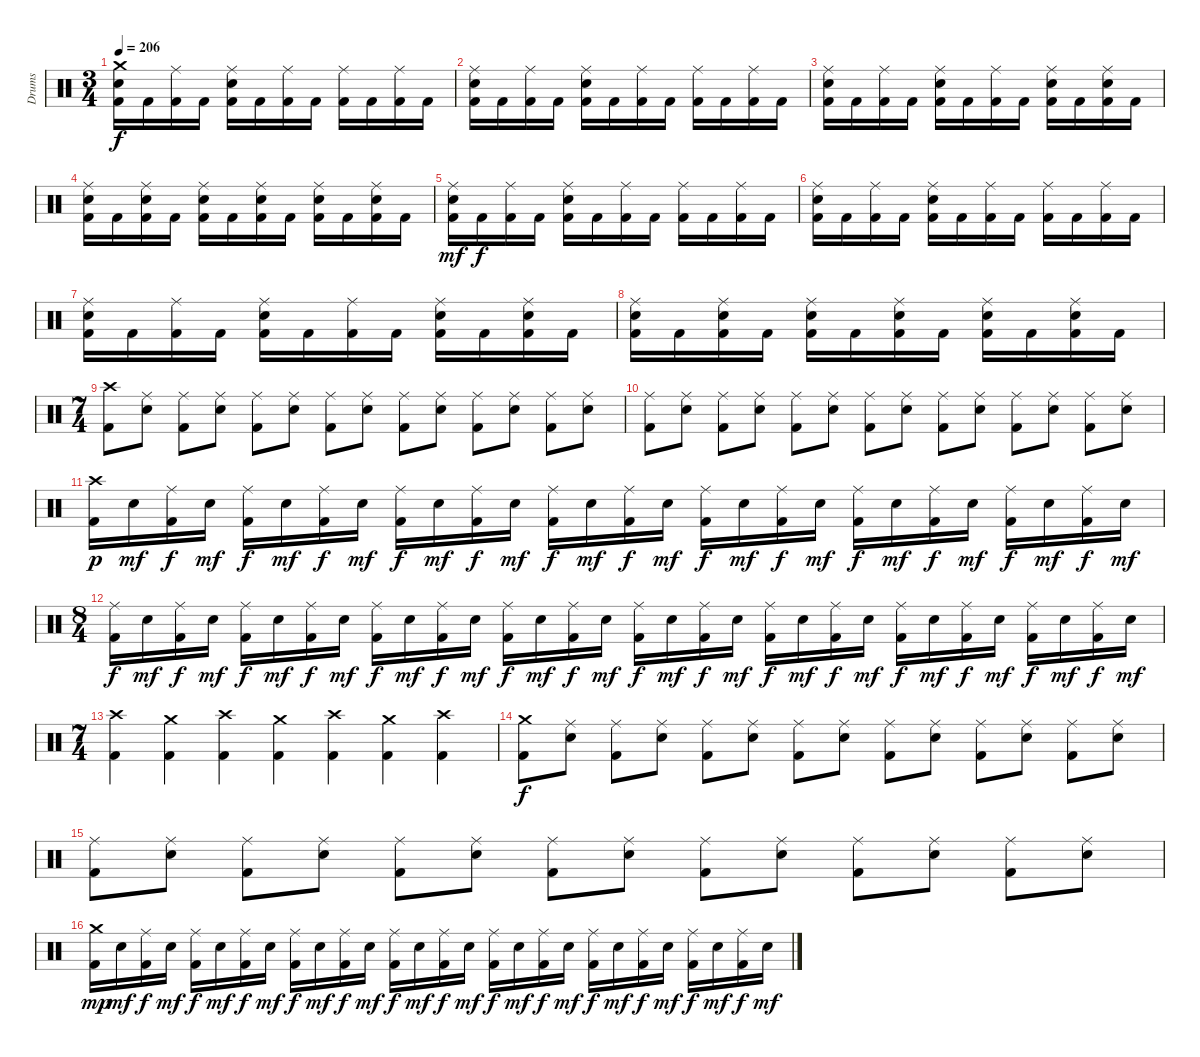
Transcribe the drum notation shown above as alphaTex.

\track ("Drums" "Drums") {instrument percussion}
\staff {score}
\articulation defaults
\ts (3 4)
\tempo 206
\clef neutral
\ks c
("Crash medium (hit)" "Electric Snare (hit)" "Kick (hit) 2").16{dy f} "Kick (hit) 2".16 ("Ride (middle)" "Kick (hit) 2").16 "Kick (hit) 2".16 ("Ride (middle)" "Electric Snare (hit)" "Kick (hit) 2").16 "Kick (hit) 2".16 ("Ride (middle)" "Kick (hit) 2").16 "Kick (hit) 2".16 ("Ride (middle)" "Kick (hit) 2").16 "Kick (hit) 2".16 ("Ride (middle)" "Kick (hit) 2").16 "Kick (hit) 2".16 |
("Ride (middle)" "Electric Snare (hit)" "Kick (hit) 2").16 "Kick (hit) 2".16 ("Ride (middle)" "Kick (hit) 2").16 "Kick (hit) 2".16 ("Ride (middle)" "Electric Snare (hit)" "Kick (hit) 2").16 "Kick (hit) 2".16 ("Ride (middle)" "Kick (hit) 2").16 "Kick (hit) 2".16 ("Ride (middle)" "Kick (hit) 2").16 "Kick (hit) 2".16 ("Ride (middle)" "Kick (hit) 2").16 "Kick (hit) 2".16 |
("Ride (middle)" "Electric Snare (hit)" "Kick (hit) 2").16 "Kick (hit) 2".16 ("Ride (middle)" "Kick (hit) 2").16 "Kick (hit) 2".16 ("Ride (middle)" "Electric Snare (hit)" "Kick (hit) 2").16 "Kick (hit) 2".16 ("Ride (middle)" "Kick (hit) 2").16 "Kick (hit) 2".16 ("Ride (middle)" "Electric Snare (hit)" "Kick (hit) 2").16 "Kick (hit) 2".16 ("Ride (middle)" "Electric Snare (hit)" "Kick (hit) 2").16 "Kick (hit) 2".16 |
("Ride (middle)" "Electric Snare (hit)" "Kick (hit) 2").16 "Kick (hit) 2".16 ("Ride (middle)" "Electric Snare (hit)" "Kick (hit) 2").16 "Kick (hit) 2".16 ("Ride (middle)" "Electric Snare (hit)" "Kick (hit) 2").16 "Kick (hit) 2".16 ("Ride (middle)" "Electric Snare (hit)" "Kick (hit) 2").16 "Kick (hit) 2".16 ("Ride (middle)" "Electric Snare (hit)" "Kick (hit) 2").16 "Kick (hit) 2".16 ("Ride (middle)" "Electric Snare (hit)" "Kick (hit) 2").16 "Kick (hit) 2".16 |
("Ride (middle)" "Electric Snare (hit)" "Kick (hit) 2").16{dy mf} "Kick (hit) 2".16{dy f} ("Ride (middle)" "Kick (hit) 2").16 "Kick (hit) 2".16 ("Ride (middle)" "Electric Snare (hit)" "Kick (hit) 2").16 "Kick (hit) 2".16 ("Ride (middle)" "Kick (hit) 2").16 "Kick (hit) 2".16 ("Ride (middle)" "Kick (hit) 2").16 "Kick (hit) 2".16 ("Ride (middle)" "Kick (hit) 2").16 "Kick (hit) 2".16 |
("Ride (middle)" "Electric Snare (hit)" "Kick (hit) 2").16 "Kick (hit) 2".16 ("Ride (middle)" "Kick (hit) 2").16 "Kick (hit) 2".16 ("Ride (middle)" "Electric Snare (hit)" "Kick (hit) 2").16 "Kick (hit) 2".16 ("Ride (middle)" "Kick (hit) 2").16 "Kick (hit) 2".16 ("Ride (middle)" "Kick (hit) 2").16 "Kick (hit) 2".16 ("Ride (middle)" "Kick (hit) 2").16 "Kick (hit) 2".16 |
("Ride (middle)" "Electric Snare (hit)" "Kick (hit) 2").16 "Kick (hit) 2".16 ("Ride (middle)" "Kick (hit) 2").16 "Kick (hit) 2".16 ("Ride (middle)" "Electric Snare (hit)" "Kick (hit) 2").16 "Kick (hit) 2".16 ("Ride (middle)" "Kick (hit) 2").16 "Kick (hit) 2".16 ("Ride (middle)" "Electric Snare (hit)" "Kick (hit) 2").16 "Kick (hit) 2".16 ("Ride (middle)" "Electric Snare (hit)" "Kick (hit) 2").16 "Kick (hit) 2".16 |
("Ride (middle)" "Electric Snare (hit)" "Kick (hit) 2").16 "Kick (hit) 2".16 ("Ride (middle)" "Electric Snare (hit)" "Kick (hit) 2").16 "Kick (hit) 2".16 ("Ride (middle)" "Electric Snare (hit)" "Kick (hit) 2").16 "Kick (hit) 2".16 ("Ride (middle)" "Electric Snare (hit)" "Kick (hit) 2").16 "Kick (hit) 2".16 ("Ride (middle)" "Electric Snare (hit)" "Kick (hit) 2").16 "Kick (hit) 2".16 ("Ride (middle)" "Electric Snare (hit)" "Kick (hit) 2").16 "Kick (hit) 2".16 |
\ts (7 4)
("Crash high (hit)" "Kick (hit) 2").8 ("Ride (middle)" "Electric Snare (hit)").8 ("Ride (middle)" "Kick (hit) 2").8 ("Ride (middle)" "Electric Snare (hit)").8 ("Ride (middle)" "Kick (hit) 2").8 ("Ride (middle)" "Electric Snare (hit)").8 ("Ride (middle)" "Kick (hit) 2").8 ("Ride (middle)" "Electric Snare (hit)").8 ("Ride (middle)" "Kick (hit) 2").8 ("Ride (middle)" "Electric Snare (hit)").8 ("Ride (middle)" "Kick (hit) 2").8 ("Ride (middle)" "Electric Snare (hit)").8 ("Ride (middle)" "Kick (hit) 2").8 ("Ride (middle)" "Electric Snare (hit)").8 |
("Ride (middle)" "Kick (hit) 2").8 ("Ride (middle)" "Electric Snare (hit)").8 ("Ride (middle)" "Kick (hit) 2").8 ("Ride (middle)" "Electric Snare (hit)").8 ("Ride (middle)" "Kick (hit) 2").8 ("Ride (middle)" "Electric Snare (hit)").8 ("Ride (middle)" "Kick (hit) 2").8 ("Ride (middle)" "Electric Snare (hit)").8 ("Ride (middle)" "Kick (hit) 2").8 ("Ride (middle)" "Electric Snare (hit)").8 ("Ride (middle)" "Kick (hit) 2").8 ("Ride (middle)" "Electric Snare (hit)").8 ("Ride (middle)" "Kick (hit) 2").8 ("Ride (middle)" "Electric Snare (hit)").8 |
("Crash high (hit)" "Kick (hit) 2").16{dy p} "Electric Snare (hit)".16{dy mf} ("Ride (middle)" "Kick (hit) 2").16{dy f} "Electric Snare (hit)".16{dy mf} ("Ride (middle)" "Kick (hit) 2").16{dy f} "Electric Snare (hit)".16{dy mf} ("Ride (middle)" "Kick (hit) 2").16{dy f} "Electric Snare (hit)".16{dy mf} ("Ride (middle)" "Kick (hit) 2").16{dy f} "Electric Snare (hit)".16{dy mf} ("Ride (middle)" "Kick (hit) 2").16{dy f} "Electric Snare (hit)".16{dy mf} ("Ride (middle)" "Kick (hit) 2").16{dy f} "Electric Snare (hit)".16{dy mf} ("Ride (middle)" "Kick (hit) 2").16{dy f} "Electric Snare (hit)".16{dy mf} ("Ride (middle)" "Kick (hit) 2").16{dy f} "Electric Snare (hit)".16{dy mf} ("Ride (middle)" "Kick (hit) 2").16{dy f} "Electric Snare (hit)".16{dy mf} ("Ride (middle)" "Kick (hit) 2").16{dy f} "Electric Snare (hit)".16{dy mf} ("Ride (middle)" "Kick (hit) 2").16{dy f} "Electric Snare (hit)".16{dy mf} ("Ride (middle)" "Kick (hit) 2").16{dy f} "Electric Snare (hit)".16{dy mf} ("Ride (middle)" "Kick (hit) 2").16{dy f} "Electric Snare (hit)".16{dy mf} |
\ts (8 4)
("Ride (middle)" "Kick (hit) 2").16{dy f} "Electric Snare (hit)".16{dy mf} ("Ride (middle)" "Kick (hit) 2").16{dy f} "Electric Snare (hit)".16{dy mf} ("Ride (middle)" "Kick (hit) 2").16{dy f} "Electric Snare (hit)".16{dy mf} ("Ride (middle)" "Kick (hit) 2").16{dy f} "Electric Snare (hit)".16{dy mf} ("Ride (middle)" "Kick (hit) 2").16{dy f} "Electric Snare (hit)".16{dy mf} ("Ride (middle)" "Kick (hit) 2").16{dy f} "Electric Snare (hit)".16{dy mf} ("Ride (middle)" "Kick (hit) 2").16{dy f} "Electric Snare (hit)".16{dy mf} ("Ride (middle)" "Kick (hit) 2").16{dy f} "Electric Snare (hit)".16{dy mf} ("Ride (middle)" "Kick (hit) 2").16{dy f} "Electric Snare (hit)".16{dy mf} ("Ride (middle)" "Kick (hit) 2").16{dy f} "Electric Snare (hit)".16{dy mf} ("Ride (middle)" "Kick (hit) 2").16{dy f} "Electric Snare (hit)".16{dy mf} ("Ride (middle)" "Kick (hit) 2").16{dy f} "Electric Snare (hit)".16{dy mf} ("Ride (middle)" "Kick (hit) 2").16{dy f} "Electric Snare (hit)".16{dy mf} ("Ride (middle)" "Kick (hit) 2").16{dy f} "Electric Snare (hit)".16{dy mf} ("Ride (middle)" "Kick (hit) 2").16{dy f} "Electric Snare (hit)".16{dy mf} ("Ride (middle)" "Kick (hit) 2").16{dy f} "Electric Snare (hit)".16{dy mf} |
\ts (7 4)
("Crash high (hit)" "Kick (hit) 2").4 ("Crash medium (hit)" "Kick (hit) 2").4 ("Crash high (hit)" "Kick (hit) 2").4 ("Crash medium (hit)" "Kick (hit) 2").4 ("Crash high (hit)" "Kick (hit) 2").4 ("Crash medium (hit)" "Kick (hit) 2").4 ("Crash high (hit)" "Kick (hit) 2").4 |
("Crash medium (hit)" "Kick (hit) 2").8{dy f} ("Ride (middle)" "Electric Snare (hit)").8 ("Ride (middle)" "Kick (hit) 2").8 ("Ride (middle)" "Electric Snare (hit)").8 ("Ride (middle)" "Kick (hit) 2").8 ("Ride (middle)" "Electric Snare (hit)").8 ("Ride (middle)" "Kick (hit) 2").8 ("Ride (middle)" "Electric Snare (hit)").8 ("Ride (middle)" "Kick (hit) 2").8 ("Ride (middle)" "Electric Snare (hit)").8 ("Ride (middle)" "Kick (hit) 2").8 ("Ride (middle)" "Electric Snare (hit)").8 ("Ride (middle)" "Kick (hit) 2").8 ("Ride (middle)" "Electric Snare (hit)").8 |
("Ride (middle)" "Kick (hit) 2").8 ("Ride (middle)" "Electric Snare (hit)").8 ("Ride (middle)" "Kick (hit) 2").8 ("Ride (middle)" "Electric Snare (hit)").8 ("Ride (middle)" "Kick (hit) 2").8 ("Ride (middle)" "Electric Snare (hit)").8 ("Ride (middle)" "Kick (hit) 2").8 ("Ride (middle)" "Electric Snare (hit)").8 ("Ride (middle)" "Kick (hit) 2").8 ("Ride (middle)" "Electric Snare (hit)").8 ("Ride (middle)" "Kick (hit) 2").8 ("Ride (middle)" "Electric Snare (hit)").8 ("Ride (middle)" "Kick (hit) 2").8 ("Ride (middle)" "Electric Snare (hit)").8 |
("Crash medium (hit)" "Kick (hit) 2").16{dy mp} "Electric Snare (hit)".16{dy mf} ("Ride (middle)" "Kick (hit) 2").16{dy f} "Electric Snare (hit)".16{dy mf} ("Ride (middle)" "Kick (hit) 2").16{dy f} "Electric Snare (hit)".16{dy mf} ("Ride (middle)" "Kick (hit) 2").16{dy f} "Electric Snare (hit)".16{dy mf} ("Ride (middle)" "Kick (hit) 2").16{dy f} "Electric Snare (hit)".16{dy mf} ("Ride (middle)" "Kick (hit) 2").16{dy f} "Electric Snare (hit)".16{dy mf} ("Ride (middle)" "Kick (hit) 2").16{dy f} "Electric Snare (hit)".16{dy mf} ("Ride (middle)" "Kick (hit) 2").16{dy f} "Electric Snare (hit)".16{dy mf} ("Ride (middle)" "Kick (hit) 2").16{dy f} "Electric Snare (hit)".16{dy mf} ("Ride (middle)" "Kick (hit) 2").16{dy f} "Electric Snare (hit)".16{dy mf} ("Ride (middle)" "Kick (hit) 2").16{dy f} "Electric Snare (hit)".16{dy mf} ("Ride (middle)" "Kick (hit) 2").16{dy f} "Electric Snare (hit)".16{dy mf} ("Ride (middle)" "Kick (hit) 2").16{dy f} "Electric Snare (hit)".16{dy mf} ("Ride (middle)" "Kick (hit) 2").16{dy f} "Electric Snare (hit)".16{dy mf}
